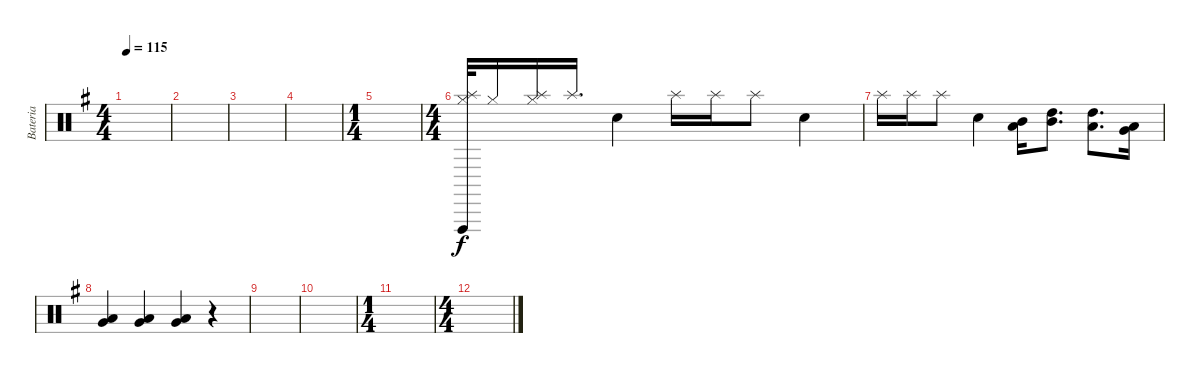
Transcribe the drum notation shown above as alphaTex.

\track ("Bateria" "Bateria") {instrument percussion}
\staff {score}
\articulation defaults
\ts (4 4)
\tempo 115
\clef neutral
\ks g
|
|
|
|
\ts (1 4)
|
\ts (4 4)
("Splash (hit)" "Hi-Hat (closed)" "Vibraslap (hit)").32 "Hi-Hat (closed)".16 ("Splash (hit)" "Hi-Hat (closed)").16 "Splash (hit)".16{d} "Snare (hit) 2".4 "Splash (hit)".16 "Splash (hit)".16 "Splash (hit)".8 "Snare (hit) 2".4 |
"Splash (hit)".16 "Splash (hit)".16 "Splash (hit)".8 "Snare (hit) 2".4 ("Low Tom (hit)" "Mid Tom (hit)").16 ("Mid Tom (hit)" "High Tom (hit)").8{d} ("High Tom (hit)" "Low Tom (hit)").8{d} ("Very Low Tom (hit)" "Low Tom (hit)").16 |
("Low Floor Tom (hit)" "Very Low Tom (hit)").4 ("Low Floor Tom (hit)" "Very Low Tom (hit)").4 ("Low Floor Tom (hit)" "Very Low Tom (hit)").4 r.4 |
|
|
\ts (1 4)
|
\ts (4 4)
